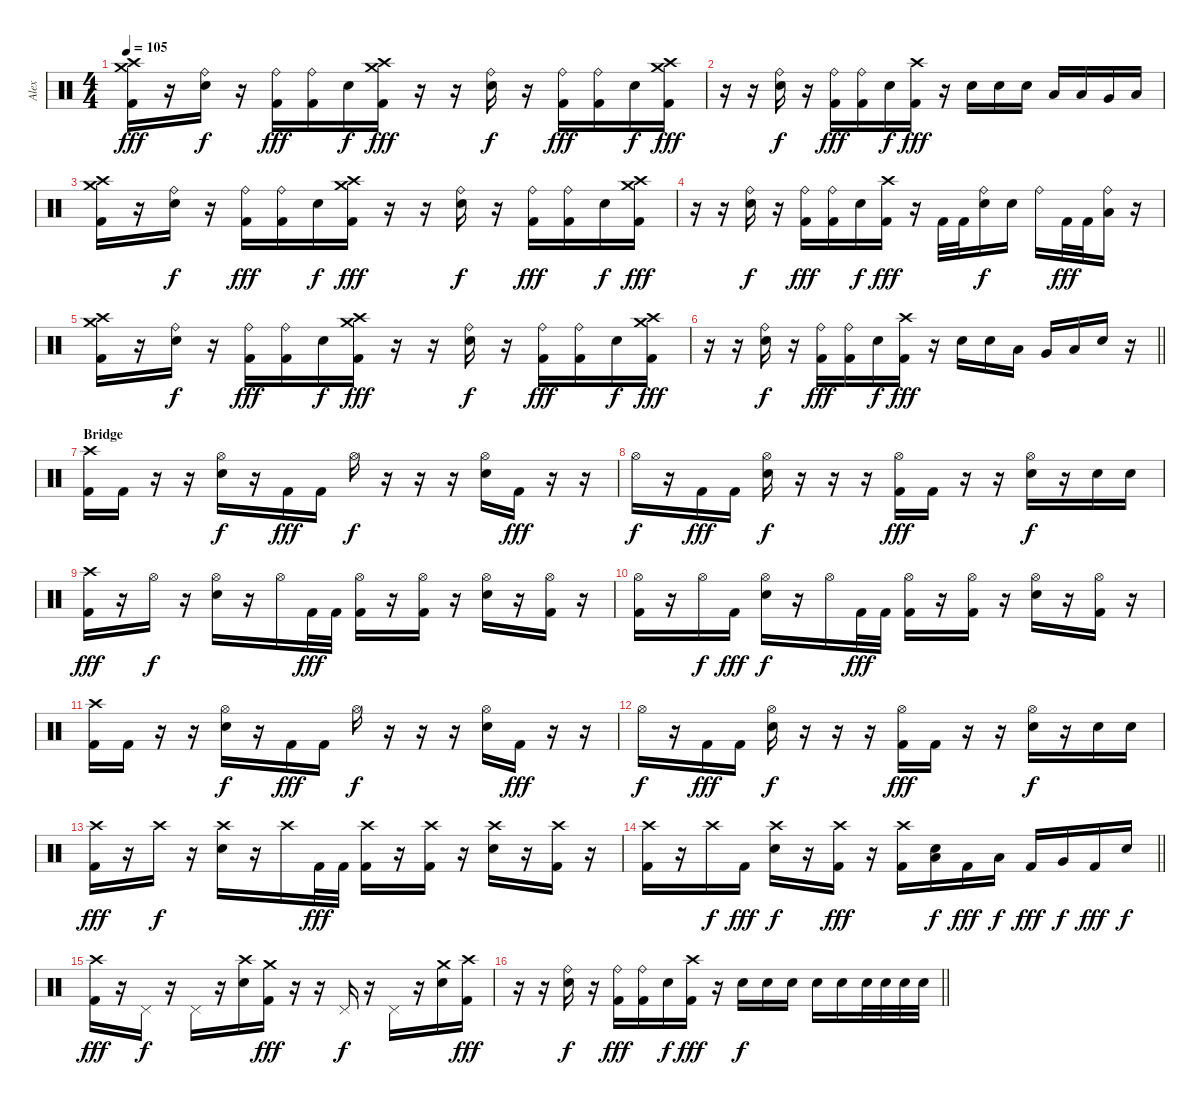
\track ("Alex" "Alex") {instrument percussion}
\staff {score}
\articulation defaults
\ts (4 4)
\tempo 105
\clef neutral
\ks c
("Crash high (hit)" "Crash medium (hit)" "Kick (hit) 2").16{dy fff} r.16 ("Ride (bell)" "Electric Snare (hit)").16{dy f} r.16 ("Ride (bell)" "Kick (hit) 2").16{dy fff} ("Ride (bell)" "Kick (hit) 2").16 "Electric Snare (hit)".16{dy f} ("Crash high (hit)" "Crash medium (hit)" "Kick (hit) 2").16{dy fff} r.16 r.16 ("Ride (bell)" "Electric Snare (hit)").16{dy f} r.16 ("Ride (bell)" "Kick (hit) 2").16{dy fff} ("Ride (bell)" "Kick (hit) 2").16 "Electric Snare (hit)".16{dy f} ("Crash high (hit)" "Crash medium (hit)" "Kick (hit) 2").16{dy fff} |
r.16 r.16 ("Ride (bell)" "Electric Snare (hit)").16{dy f} r.16 ("Ride (bell)" "Kick (hit) 2").16{dy fff} ("Ride (bell)" "Kick (hit) 2").16 "Electric Snare (hit)".16{dy f} ("Crash high (hit)" "Kick (hit) 2").16{dy fff} r.16 "Electric Snare (hit)".16 "Electric Snare (hit)".16 "Electric Snare (hit)".16 "Low Tom (hit)".16 "Low Tom (hit)".16 "Very Low Tom (hit)".16 "Low Floor Tom (hit)".16 |
("Crash high (hit)" "Crash medium (hit)" "Kick (hit) 2").16 r.16 ("Ride (bell)" "Electric Snare (hit)").16{dy f} r.16 ("Ride (bell)" "Kick (hit) 2").16{dy fff} ("Ride (bell)" "Kick (hit) 2").16 "Electric Snare (hit)".16{dy f} ("Crash high (hit)" "Crash medium (hit)" "Kick (hit) 2").16{dy fff} r.16 r.16 ("Ride (bell)" "Electric Snare (hit)").16{dy f} r.16 ("Ride (bell)" "Kick (hit) 2").16{dy fff} ("Ride (bell)" "Kick (hit) 2").16 "Electric Snare (hit)".16{dy f} ("Crash high (hit)" "Crash medium (hit)" "Kick (hit) 2").16{dy fff} |
r.16 r.16 ("Ride (bell)" "Electric Snare (hit)").16{dy f} r.16 ("Ride (bell)" "Kick (hit) 2").16{dy fff} ("Ride (bell)" "Kick (hit) 2").16 "Electric Snare (hit)".16{dy f} ("Crash high (hit)" "Kick (hit) 2").16{dy fff} r.16 "Kick (hit) 2".32 "Kick (hit) 2".32 ("Ride (bell)" "Electric Snare (hit)").16{dy f} "Electric Snare (hit)".16 "Ride (bell)".16 "Kick (hit) 2".32{dy fff} "Kick (hit) 2".32 ("Ride (bell)" "Low Tom (hit)").16 r.16 |
("Crash high (hit)" "Crash medium (hit)" "Kick (hit) 2").16 r.16 ("Ride (bell)" "Electric Snare (hit)").16{dy f} r.16 ("Ride (bell)" "Kick (hit) 2").16{dy fff} ("Ride (bell)" "Kick (hit) 2").16 "Electric Snare (hit)".16{dy f} ("Crash high (hit)" "Crash medium (hit)" "Kick (hit) 2").16{dy fff} r.16 r.16 ("Ride (bell)" "Electric Snare (hit)").16{dy f} r.16 ("Ride (bell)" "Kick (hit) 2").16{dy fff} ("Ride (bell)" "Kick (hit) 2").16 "Electric Snare (hit)".16{dy f} ("Crash high (hit)" "Crash medium (hit)" "Kick (hit) 2").16{dy fff} |
\barLineRight lightlight
r.16 r.16 ("Ride (bell)" "Electric Snare (hit)").16{dy f} r.16 ("Ride (bell)" "Kick (hit) 2").16{dy fff} ("Ride (bell)" "Kick (hit) 2").16 "Electric Snare (hit)".16{dy f} ("Crash high (hit)" "Kick (hit) 2").16{dy fff} r.16 "Electric Snare (hit)".16 "Electric Snare (hit)".16 "Low Tom (hit)".16 "Very Low Tom (hit)".16 "Low Floor Tom (hit)".16 "Electric Snare (hit)".16 r.16 |
\section ("" "Bridge")
("Crash high (hit)" "Kick (hit) 2").16 "Kick (hit) 2".16 r.16 r.16 ("Hi-Hat (open)" "Electric Snare (hit)").16{dy f} r.16 "Kick (hit) 2".16{dy fff} "Kick (hit) 2".16 "Hi-Hat (open)".16{dy f} r.16 r.16 r.16 ("Hi-Hat (open)" "Electric Snare (hit)").16 "Kick (hit) 2".16{dy fff} r.16 r.16 |
"Hi-Hat (open)".16{dy f} r.16 "Kick (hit) 2".16{dy fff} "Kick (hit) 2".16 ("Hi-Hat (open)" "Electric Snare (hit)").16{dy f} r.16 r.16 r.16 ("Hi-Hat (open)" "Kick (hit) 2").16{dy fff} "Kick (hit) 2".16 r.16 r.16 ("Hi-Hat (open)" "Electric Snare (hit)").16{dy f} r.16 "Electric Snare (hit)".16 "Electric Snare (hit)".16 |
("Crash high (hit)" "Kick (hit) 2").16{dy fff} r.16 "Hi-Hat (open)".16{dy f} r.16 ("Hi-Hat (open)" "Electric Snare (hit)").16 r.16 "Hi-Hat (open)".16 "Kick (hit) 2".32{dy fff} "Kick (hit) 2".32 ("Hi-Hat (open)" "Kick (hit) 2").16 r.16 ("Hi-Hat (open)" "Kick (hit) 2").16 r.16 ("Hi-Hat (open)" "Electric Snare (hit)").16 r.16 ("Hi-Hat (open)" "Kick (hit) 2").16 r.16 |
("Hi-Hat (open)" "Kick (hit) 2").16 r.16 "Hi-Hat (open)".16{dy f} "Kick (hit) 2".16{dy fff} ("Hi-Hat (open)" "Electric Snare (hit)").16{dy f} r.16 "Hi-Hat (open)".16 "Kick (hit) 2".32{dy fff} "Kick (hit) 2".32 ("Hi-Hat (open)" "Kick (hit) 2").16 r.16 ("Hi-Hat (open)" "Kick (hit) 2").16 r.16 ("Hi-Hat (open)" "Electric Snare (hit)").16 r.16 ("Hi-Hat (open)" "Kick (hit) 2").16 r.16 |
("Crash high (hit)" "Kick (hit) 2").16 "Kick (hit) 2".16 r.16 r.16 ("Hi-Hat (open)" "Electric Snare (hit)").16{dy f} r.16 "Kick (hit) 2".16{dy fff} "Kick (hit) 2".16 "Hi-Hat (open)".16{dy f} r.16 r.16 r.16 ("Hi-Hat (open)" "Electric Snare (hit)").16 "Kick (hit) 2".16{dy fff} r.16 r.16 |
"Hi-Hat (open)".16{dy f} r.16 "Kick (hit) 2".16{dy fff} "Kick (hit) 2".16 ("Hi-Hat (open)" "Electric Snare (hit)").16{dy f} r.16 r.16 r.16 ("Hi-Hat (open)" "Kick (hit) 2").16{dy fff} "Kick (hit) 2".16 r.16 r.16 ("Hi-Hat (open)" "Electric Snare (hit)").16{dy f} r.16 "Electric Snare (hit)".16 "Electric Snare (hit)".16 |
("Crash high (hit)" "Kick (hit) 2").16{dy fff} r.16 "Crash high (hit)".16{dy f} r.16 ("Crash high (hit)" "Electric Snare (hit)").16 r.16 "Crash high (hit)".16 "Kick (hit) 2".32{dy fff} "Kick (hit) 2".32 ("Crash high (hit)" "Kick (hit) 2").16 r.16 ("Crash high (hit)" "Kick (hit) 2").16 r.16 ("Crash high (hit)" "Electric Snare (hit)").16 r.16 ("Crash high (hit)" "Kick (hit) 2").16 r.16 |
\barLineRight lightlight
("Crash high (hit)" "Kick (hit) 2").16 r.16 "Crash high (hit)".16{dy f} "Kick (hit) 2".16{dy fff} ("Crash high (hit)" "Electric Snare (hit)").16{dy f} r.16 ("Crash high (hit)" "Kick (hit) 2").16{dy fff} r.16 ("Crash high (hit)" "Kick (hit) 2").16 ("Low Floor Tom (hit)" "Electric Snare (hit)").16{dy f} "Kick (hit) 2".16{dy fff} "Low Tom (hit)".16{dy f} "Kick (hit) 2".16{dy fff} "Very Low Tom (hit)".16{dy f} "Kick (hit) 2".16{dy fff} "Electric Snare (hit)".16{dy f} |
\section ("" "")
("Crash high (hit)" "Kick (hit) 2").16{dy fff} r.16 "Pedal Hi-Hat (hit)".16{dy f} r.16 "Pedal Hi-Hat (hit)".16 r.16 ("Crash high (hit)" "Electric Snare (hit)").16 ("Crash medium (hit)" "Kick (hit) 2").16{dy fff} r.16 r.16 "Pedal Hi-Hat (hit)".16{dy f} r.16 "Pedal Hi-Hat (hit)".16 r.16 ("Crash medium (hit)" "Electric Snare (hit)").16 ("Crash high (hit)" "Kick (hit) 2").16{dy fff} |
\barLineRight lightlight
r.16 r.16 ("Ride (bell)" "Electric Snare (hit)").16{dy f} r.16 ("Ride (bell)" "Kick (hit) 2").16{dy fff} ("Ride (bell)" "Kick (hit) 2").16 "Electric Snare (hit)".16{dy f} ("Crash high (hit)" "Kick (hit) 2").16{dy fff} r.16 "Electric Snare (hit)".16{dy f} "Electric Snare (hit)".16 "Electric Snare (hit)".16 "Electric Snare (hit)".16 "Electric Snare (hit)".16 "Electric Snare (hit)".32 "Electric Snare (hit)".32 "Electric Snare (hit)".32 "Electric Snare (hit)".32
